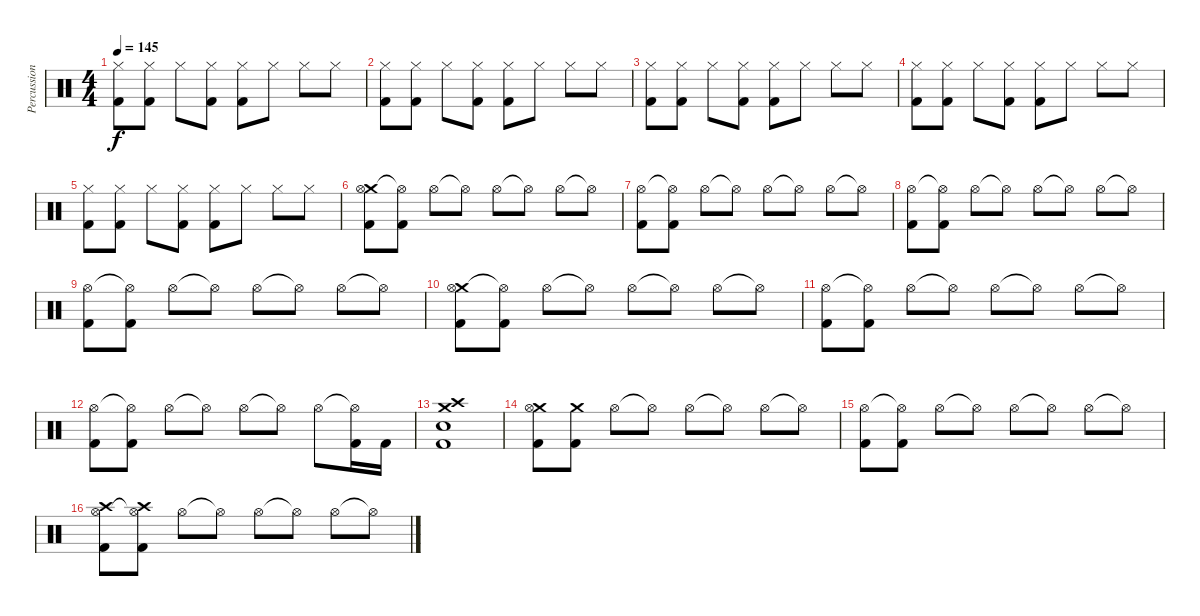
\track ("Percussioni" "Percussion") {instrument percussion}
\staff {score}
\articulation defaults
\ts (4 4)
\tempo 145
\clef neutral
\ks c
("Hi-Hat (closed)" "Kick (hit) 2").8{dy f} ("Hi-Hat (closed)" "Kick (hit) 2").8 "Hi-Hat (closed)".8 ("Hi-Hat (closed)" "Kick (hit) 2").8 ("Hi-Hat (closed)" "Kick (hit) 2").8 "Hi-Hat (closed)".8 "Hi-Hat (closed)".8 "Hi-Hat (closed)".8 |
("Hi-Hat (closed)" "Kick (hit) 2").8 ("Hi-Hat (closed)" "Kick (hit) 2").8 "Hi-Hat (closed)".8 ("Hi-Hat (closed)" "Kick (hit) 2").8 ("Hi-Hat (closed)" "Kick (hit) 2").8 "Hi-Hat (closed)".8 "Hi-Hat (closed)".8 "Hi-Hat (closed)".8 |
("Hi-Hat (closed)" "Kick (hit) 2").8 ("Hi-Hat (closed)" "Kick (hit) 2").8 "Hi-Hat (closed)".8 ("Hi-Hat (closed)" "Kick (hit) 2").8 ("Hi-Hat (closed)" "Kick (hit) 2").8 "Hi-Hat (closed)".8 "Hi-Hat (closed)".8 "Hi-Hat (closed)".8 |
("Hi-Hat (closed)" "Kick (hit) 2").8 ("Hi-Hat (closed)" "Kick (hit) 2").8 "Hi-Hat (closed)".8 ("Hi-Hat (closed)" "Kick (hit) 2").8 ("Hi-Hat (closed)" "Kick (hit) 2").8 "Hi-Hat (closed)".8 "Hi-Hat (closed)".8 "Hi-Hat (closed)".8 |
("Hi-Hat (closed)" "Kick (hit) 2").8 ("Hi-Hat (closed)" "Kick (hit) 2").8 "Hi-Hat (closed)".8 ("Hi-Hat (closed)" "Kick (hit) 2").8 ("Hi-Hat (closed)" "Kick (hit) 2").8 "Hi-Hat (closed)".8 "Hi-Hat (closed)".8 "Hi-Hat (closed)".8 |
("Crash medium (hit)" "Hi-Hat (open)" "Kick (hit) 2").8 ("Hi-Hat (open)"{t} "Kick (hit) 2").8 "Hi-Hat (open)".8 "Hi-Hat (open)"{t}.8 "Hi-Hat (open)".8 "Hi-Hat (open)"{t}.8 "Hi-Hat (open)".8 "Hi-Hat (open)"{t}.8 |
("Hi-Hat (open)" "Kick (hit) 2").8 ("Hi-Hat (open)"{t} "Kick (hit) 2").8 "Hi-Hat (open)".8 "Hi-Hat (open)"{t}.8 "Hi-Hat (open)".8 "Hi-Hat (open)"{t}.8 "Hi-Hat (open)".8 "Hi-Hat (open)"{t}.8 |
("Hi-Hat (open)" "Kick (hit) 2").8 ("Hi-Hat (open)"{t} "Kick (hit) 2").8 "Hi-Hat (open)".8 "Hi-Hat (open)"{t}.8 "Hi-Hat (open)".8 "Hi-Hat (open)"{t}.8 "Hi-Hat (open)".8 "Hi-Hat (open)"{t}.8 |
("Hi-Hat (open)" "Kick (hit) 2").8 ("Hi-Hat (open)"{t} "Kick (hit) 2").8 "Hi-Hat (open)".8 "Hi-Hat (open)"{t}.8 "Hi-Hat (open)".8 "Hi-Hat (open)"{t}.8 "Hi-Hat (open)".8 "Hi-Hat (open)"{t}.8 |
("Crash medium (hit)" "Hi-Hat (open)" "Kick (hit) 2").8 ("Hi-Hat (open)"{t} "Kick (hit) 2").8 "Hi-Hat (open)".8 "Hi-Hat (open)"{t}.8 "Hi-Hat (open)".8 "Hi-Hat (open)"{t}.8 "Hi-Hat (open)".8 "Hi-Hat (open)"{t}.8 |
("Hi-Hat (open)" "Kick (hit) 2").8 ("Hi-Hat (open)"{t} "Kick (hit) 2").8 "Hi-Hat (open)".8 "Hi-Hat (open)"{t}.8 "Hi-Hat (open)".8 "Hi-Hat (open)"{t}.8 "Hi-Hat (open)".8 "Hi-Hat (open)"{t}.8 |
("Hi-Hat (open)" "Kick (hit) 2").8 ("Hi-Hat (open)"{t} "Kick (hit) 2").8 "Hi-Hat (open)".8 "Hi-Hat (open)"{t}.8 "Hi-Hat (open)".8 "Hi-Hat (open)"{t}.8 "Hi-Hat (open)".8 ("Hi-Hat (open)"{t} "Kick (hit) 2").16 "Kick (hit) 2".16 |
("Crash medium (hit)" "Crash high (hit)" "Snare (hit) 2" "Kick (hit) 2").1 |
("Crash medium (hit)" "Hi-Hat (open)" "Kick (hit) 2").8 ("Crash medium (hit)" "Kick (hit) 2").8 "Hi-Hat (open)".8 "Hi-Hat (open)"{t}.8 "Hi-Hat (open)".8 "Hi-Hat (open)"{t}.8 "Hi-Hat (open)".8 "Hi-Hat (open)"{t}.8 |
("Hi-Hat (open)" "Kick (hit) 2").8 ("Hi-Hat (open)"{t} "Kick (hit) 2").8 "Hi-Hat (open)".8 "Hi-Hat (open)"{t}.8 "Hi-Hat (open)".8 "Hi-Hat (open)"{t}.8 "Hi-Hat (open)".8 "Hi-Hat (open)"{t}.8 |
("Crash high (hit)" "Hi-Hat (open)" "Kick (hit) 2").8 ("Crash high (hit)" "Hi-Hat (open)"{t} "Kick (hit) 2").8 "Hi-Hat (open)".8 "Hi-Hat (open)"{t}.8 "Hi-Hat (open)".8 "Hi-Hat (open)"{t}.8 "Hi-Hat (open)".8 "Hi-Hat (open)"{t}.8
